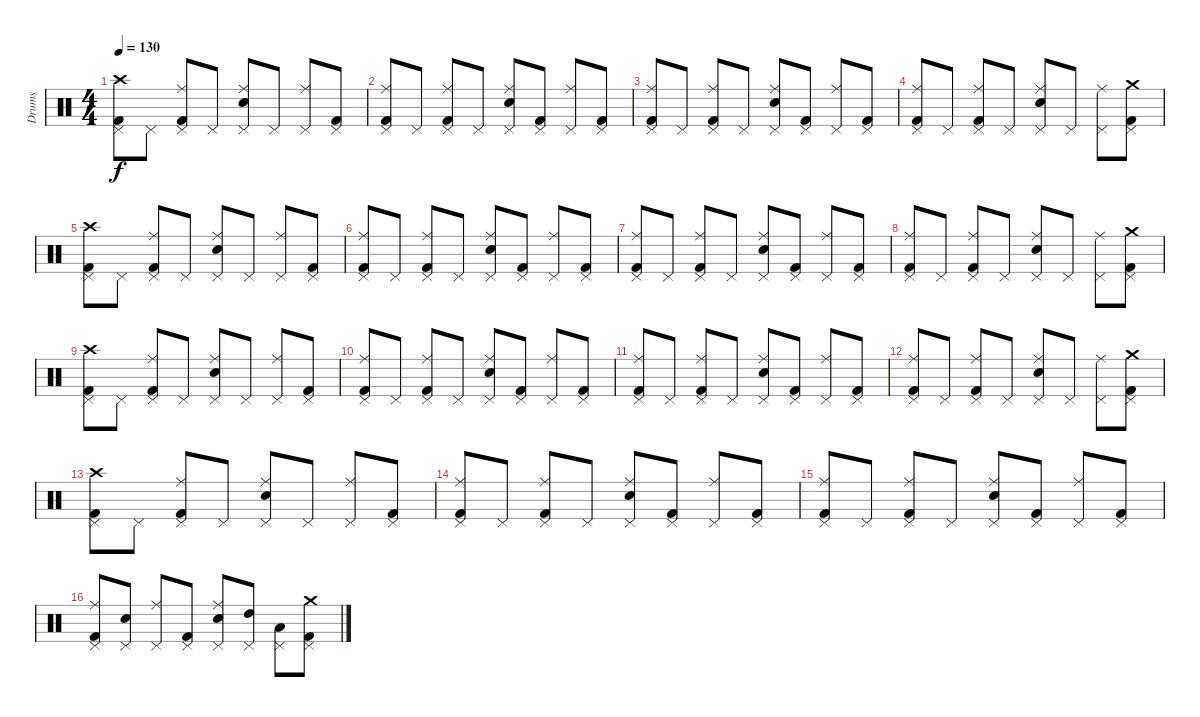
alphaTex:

\track ("Drums" "Drums") {instrument percussion}
\staff {score}
\articulation defaults
\ts (4 4)
\tempo 130
\clef neutral
\ks c
("Crash high (hit)" "Kick (hit) 2" "Pedal Hi-Hat (hit)").8{dy f} "Pedal Hi-Hat (hit)".8 ("Ride (middle)" "Kick (hit) 2" "Pedal Hi-Hat (hit)").8 "Pedal Hi-Hat (hit)".8 ("Ride (middle)" "Electric Snare (hit)" "Pedal Hi-Hat (hit)").8 "Pedal Hi-Hat (hit)".8 ("Ride (middle)" "Pedal Hi-Hat (hit)").8 ("Kick (hit) 2" "Pedal Hi-Hat (hit)").8 |
("Ride (middle)" "Kick (hit) 2" "Pedal Hi-Hat (hit)").8 "Pedal Hi-Hat (hit)".8 ("Ride (middle)" "Kick (hit) 2" "Pedal Hi-Hat (hit)").8 "Pedal Hi-Hat (hit)".8 ("Ride (middle)" "Electric Snare (hit)" "Pedal Hi-Hat (hit)").8 ("Kick (hit) 2" "Pedal Hi-Hat (hit)").8 ("Ride (middle)" "Pedal Hi-Hat (hit)").8 ("Kick (hit) 2" "Pedal Hi-Hat (hit)").8 |
("Ride (middle)" "Kick (hit) 2" "Pedal Hi-Hat (hit)").8 "Pedal Hi-Hat (hit)".8 ("Ride (middle)" "Kick (hit) 2" "Pedal Hi-Hat (hit)").8 "Pedal Hi-Hat (hit)".8 ("Ride (middle)" "Electric Snare (hit)" "Pedal Hi-Hat (hit)").8 ("Kick (hit) 2" "Pedal Hi-Hat (hit)").8 ("Ride (middle)" "Pedal Hi-Hat (hit)").8 ("Kick (hit) 2" "Pedal Hi-Hat (hit)").8 |
("Ride (middle)" "Kick (hit) 2" "Pedal Hi-Hat (hit)").8 "Pedal Hi-Hat (hit)".8 ("Ride (middle)" "Kick (hit) 2" "Pedal Hi-Hat (hit)").8 "Pedal Hi-Hat (hit)".8 ("Ride (middle)" "Electric Snare (hit)" "Pedal Hi-Hat (hit)").8 "Pedal Hi-Hat (hit)".8 ("Ride (middle)" "Pedal Hi-Hat (hit)").8 ("Crash medium (hit)" "Kick (hit) 2" "Pedal Hi-Hat (hit)").8 |
("Crash high (hit)" "Kick (hit) 2" "Pedal Hi-Hat (hit)").8 "Pedal Hi-Hat (hit)".8 ("Ride (middle)" "Kick (hit) 2" "Pedal Hi-Hat (hit)").8 "Pedal Hi-Hat (hit)".8 ("Ride (middle)" "Electric Snare (hit)" "Pedal Hi-Hat (hit)").8 "Pedal Hi-Hat (hit)".8 ("Ride (middle)" "Pedal Hi-Hat (hit)").8 ("Kick (hit) 2" "Pedal Hi-Hat (hit)").8 |
("Ride (middle)" "Kick (hit) 2" "Pedal Hi-Hat (hit)").8 "Pedal Hi-Hat (hit)".8 ("Ride (middle)" "Kick (hit) 2" "Pedal Hi-Hat (hit)").8 "Pedal Hi-Hat (hit)".8 ("Ride (middle)" "Electric Snare (hit)" "Pedal Hi-Hat (hit)").8 ("Kick (hit) 2" "Pedal Hi-Hat (hit)").8 ("Ride (middle)" "Pedal Hi-Hat (hit)").8 ("Kick (hit) 2" "Pedal Hi-Hat (hit)").8 |
("Ride (middle)" "Kick (hit) 2" "Pedal Hi-Hat (hit)").8 "Pedal Hi-Hat (hit)".8 ("Ride (middle)" "Kick (hit) 2" "Pedal Hi-Hat (hit)").8 "Pedal Hi-Hat (hit)".8 ("Ride (middle)" "Electric Snare (hit)" "Pedal Hi-Hat (hit)").8 ("Kick (hit) 2" "Pedal Hi-Hat (hit)").8 ("Ride (middle)" "Pedal Hi-Hat (hit)").8 ("Kick (hit) 2" "Pedal Hi-Hat (hit)").8 |
("Ride (middle)" "Kick (hit) 2" "Pedal Hi-Hat (hit)").8 "Pedal Hi-Hat (hit)".8 ("Ride (middle)" "Kick (hit) 2" "Pedal Hi-Hat (hit)").8 "Pedal Hi-Hat (hit)".8 ("Ride (middle)" "Electric Snare (hit)" "Pedal Hi-Hat (hit)").8 "Pedal Hi-Hat (hit)".8 ("Ride (middle)" "Pedal Hi-Hat (hit)").8 ("Crash medium (hit)" "Kick (hit) 2" "Pedal Hi-Hat (hit)").8 |
("Crash high (hit)" "Kick (hit) 2" "Pedal Hi-Hat (hit)").8 "Pedal Hi-Hat (hit)".8 ("Ride (middle)" "Kick (hit) 2" "Pedal Hi-Hat (hit)").8 "Pedal Hi-Hat (hit)".8 ("Ride (middle)" "Electric Snare (hit)" "Pedal Hi-Hat (hit)").8 "Pedal Hi-Hat (hit)".8 ("Ride (middle)" "Pedal Hi-Hat (hit)").8 ("Kick (hit) 2" "Pedal Hi-Hat (hit)").8 |
("Ride (middle)" "Kick (hit) 2" "Pedal Hi-Hat (hit)").8 "Pedal Hi-Hat (hit)".8 ("Ride (middle)" "Kick (hit) 2" "Pedal Hi-Hat (hit)").8 "Pedal Hi-Hat (hit)".8 ("Ride (middle)" "Electric Snare (hit)" "Pedal Hi-Hat (hit)").8 ("Kick (hit) 2" "Pedal Hi-Hat (hit)").8 ("Ride (middle)" "Pedal Hi-Hat (hit)").8 ("Kick (hit) 2" "Pedal Hi-Hat (hit)").8 |
("Ride (middle)" "Kick (hit) 2" "Pedal Hi-Hat (hit)").8 "Pedal Hi-Hat (hit)".8 ("Ride (middle)" "Kick (hit) 2" "Pedal Hi-Hat (hit)").8 "Pedal Hi-Hat (hit)".8 ("Ride (middle)" "Electric Snare (hit)" "Pedal Hi-Hat (hit)").8 ("Kick (hit) 2" "Pedal Hi-Hat (hit)").8 ("Ride (middle)" "Pedal Hi-Hat (hit)").8 ("Kick (hit) 2" "Pedal Hi-Hat (hit)").8 |
("Ride (middle)" "Kick (hit) 2" "Pedal Hi-Hat (hit)").8 "Pedal Hi-Hat (hit)".8 ("Ride (middle)" "Kick (hit) 2" "Pedal Hi-Hat (hit)").8 "Pedal Hi-Hat (hit)".8 ("Ride (middle)" "Electric Snare (hit)" "Pedal Hi-Hat (hit)").8 "Pedal Hi-Hat (hit)".8 ("Ride (middle)" "Pedal Hi-Hat (hit)").8 ("Crash medium (hit)" "Kick (hit) 2" "Pedal Hi-Hat (hit)").8 |
("Crash high (hit)" "Kick (hit) 2" "Pedal Hi-Hat (hit)").8 "Pedal Hi-Hat (hit)".8 ("Ride (middle)" "Kick (hit) 2" "Pedal Hi-Hat (hit)").8 "Pedal Hi-Hat (hit)".8 ("Ride (middle)" "Electric Snare (hit)" "Pedal Hi-Hat (hit)").8 "Pedal Hi-Hat (hit)".8 ("Ride (middle)" "Pedal Hi-Hat (hit)").8 ("Kick (hit) 2" "Pedal Hi-Hat (hit)").8 |
("Ride (middle)" "Kick (hit) 2" "Pedal Hi-Hat (hit)").8 "Pedal Hi-Hat (hit)".8 ("Ride (middle)" "Kick (hit) 2" "Pedal Hi-Hat (hit)").8 "Pedal Hi-Hat (hit)".8 ("Ride (middle)" "Electric Snare (hit)" "Pedal Hi-Hat (hit)").8 ("Kick (hit) 2" "Pedal Hi-Hat (hit)").8 ("Ride (middle)" "Pedal Hi-Hat (hit)").8 ("Kick (hit) 2" "Pedal Hi-Hat (hit)").8 |
("Ride (middle)" "Kick (hit) 2" "Pedal Hi-Hat (hit)").8 "Pedal Hi-Hat (hit)".8 ("Ride (middle)" "Kick (hit) 2" "Pedal Hi-Hat (hit)").8 "Pedal Hi-Hat (hit)".8 ("Ride (middle)" "Electric Snare (hit)" "Pedal Hi-Hat (hit)").8 ("Kick (hit) 2" "Pedal Hi-Hat (hit)").8 ("Ride (middle)" "Pedal Hi-Hat (hit)").8 ("Kick (hit) 2" "Pedal Hi-Hat (hit)").8 |
("Ride (middle)" "Kick (hit) 2" "Pedal Hi-Hat (hit)").8 ("Electric Snare (hit)" "Pedal Hi-Hat (hit)").8 ("Ride (middle)" "Pedal Hi-Hat (hit)").8 ("Kick (hit) 2" "Pedal Hi-Hat (hit)").8 ("Ride (middle)" "Electric Snare (hit)" "Pedal Hi-Hat (hit)").8 ("High Tom (hit)" "Pedal Hi-Hat (hit)").8 ("Low Tom (hit)" "Pedal Hi-Hat (hit)").8 ("Crash medium (hit)" "Kick (hit) 2" "Pedal Hi-Hat (hit)").8
